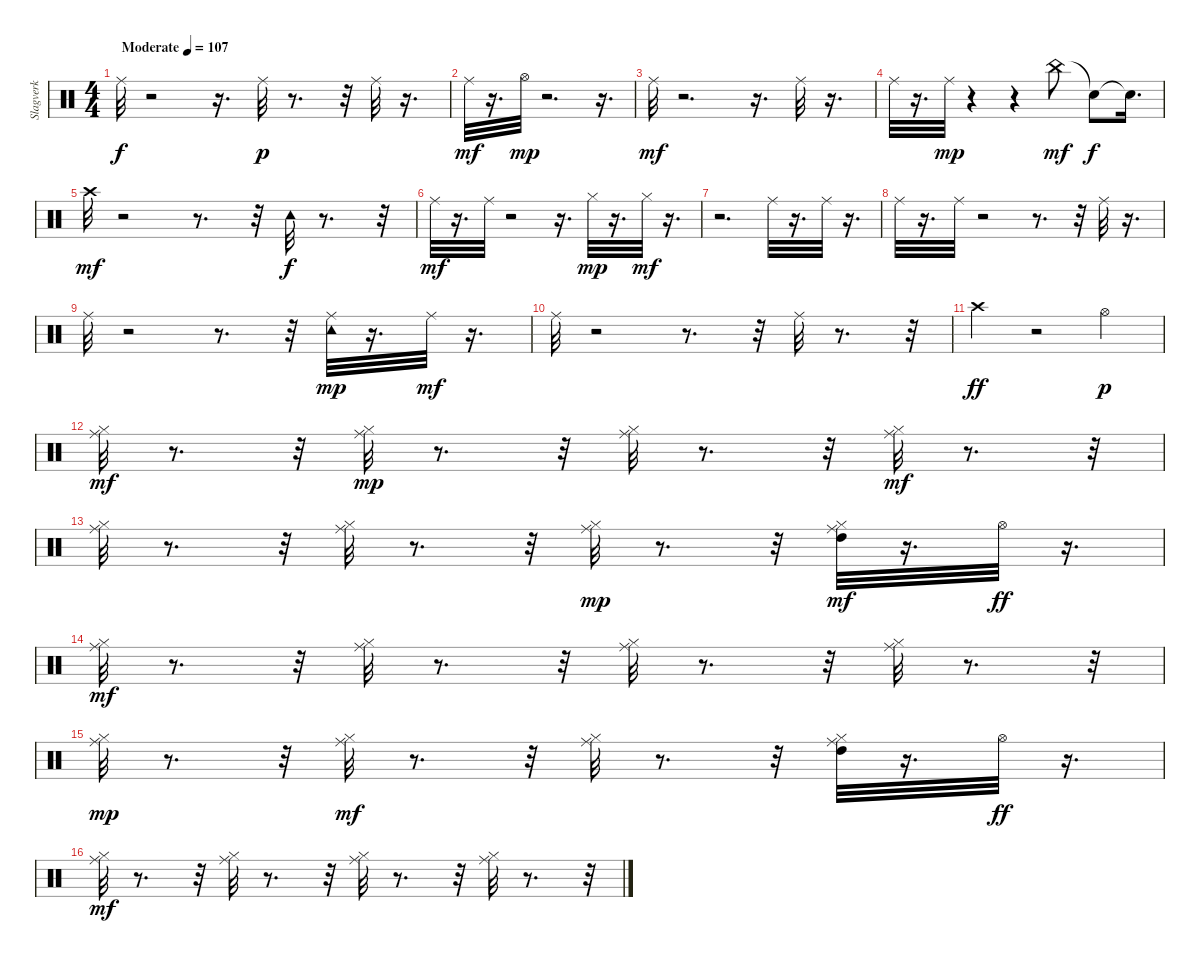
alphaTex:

\track ("Slagverk" "Slagverk") {instrument percussion}
\staff {score}
\articulation defaults
\ts (4 4)
\tempo (107 "Moderate")
\clef neutral
\ks c "Ride (middle)".32{dy f}
r.2 r.16{d} "Ride (middle)".32{dy p} r.8{d} r.32 "Ride (middle)".32 r.16{d} |
"Ride (middle)".32{dy mf} r.16{d} "Hi-Hat (open)".32{dy mp} r.2{d} r.16{d} |
"Ride (middle)".32{dy mf} r.2{d} r.16{d} "Ride (middle)".32 r.16{d} |
"Ride (middle)".32 r.16{d} "Ride (middle)".32{dy mp} r.4 r.4 "China (hit)".8{dy mf} "Snare (hit)"{t}.8{dy f} "Snare (hit)"{t}.16{d} |
"Crash high (hit)".32{dy mf} r.2 r.8{d} r.32 "Tambourine (hit)".32{dy f} r.8{d} r.32 |
"Ride (middle)".32{dy mf} r.16{d} "Ride (middle)".32 r.2 r.16{d} "Hi-Hat (closed)".32{dy mp} r.16{d} "Hi-Hat (closed)".32{dy mf} r.16{d} |
r.2{d} "Ride (middle)".32 r.16{d} "Ride (middle)".32 r.16{d} |
"Ride (middle)".32 r.16{d} "Ride (middle)".32 r.2 r.8{d} r.32 "Ride (middle)".32 r.16{d} |
"Ride (middle)".32 r.2 r.8{d} r.32 ("Ride (middle)" "Tambourine (hit)").32{dy mp} r.16{d} "Ride (middle)".32{dy mf} r.16{d} |
"Ride (middle)".32 r.2 r.8{d} r.32 "Ride (middle)".32 r.8{d} r.32 |
"Crash high (hit)".4{dy ff} r.2 "Hi-Hat (open)".4{dy p} |
("Hi-Hat (closed)" "Ride (middle)").32{dy mf} r.8{d} r.32 ("Hi-Hat (closed)" "Ride (middle)").32{dy mp} r.8{d} r.32 ("Hi-Hat (closed)" "Ride (middle)").32 r.8{d} r.32 ("Hi-Hat (closed)" "Ride (middle)").32{dy mf} r.8{d} r.32 |
("Hi-Hat (closed)" "Ride (middle)").32 r.8{d} r.32 ("Hi-Hat (closed)" "Ride (middle)").32 r.8{d} r.32 ("Hi-Hat (closed)" "Ride (middle)").32{dy mp} r.8{d} r.32 ("Hi-Hat (closed)" "High Tom (hit)" "Ride (middle)").32{dy mf} r.16{d} "Hi-Hat (open)".32{dy ff} r.16{d} |
("Hi-Hat (closed)" "Ride (middle)").32{dy mf} r.8{d} r.32 ("Hi-Hat (closed)" "Ride (middle)").32 r.8{d} r.32 ("Hi-Hat (closed)" "Ride (middle)").32 r.8{d} r.32 ("Hi-Hat (closed)" "Ride (middle)").32 r.8{d} r.32 |
("Hi-Hat (closed)" "Ride (middle)").32{dy mp} r.8{d} r.32 ("Hi-Hat (closed)" "Ride (middle)").32{dy mf} r.8{d} r.32 ("Hi-Hat (closed)" "Ride (middle)").32 r.8{d} r.32 ("Hi-Hat (closed)" "High Tom (hit)" "Ride (middle)").32 r.16{d} "Hi-Hat (open)".32{dy ff} r.16{d} |
("Hi-Hat (closed)" "Ride (middle)").32{dy mf} r.8{d} r.32 ("Hi-Hat (closed)" "Ride (middle)").32 r.8{d} r.32 ("Hi-Hat (closed)" "Ride (middle)").32 r.8{d} r.32 ("Hi-Hat (closed)" "Ride (middle)").32 r.8{d} r.32
